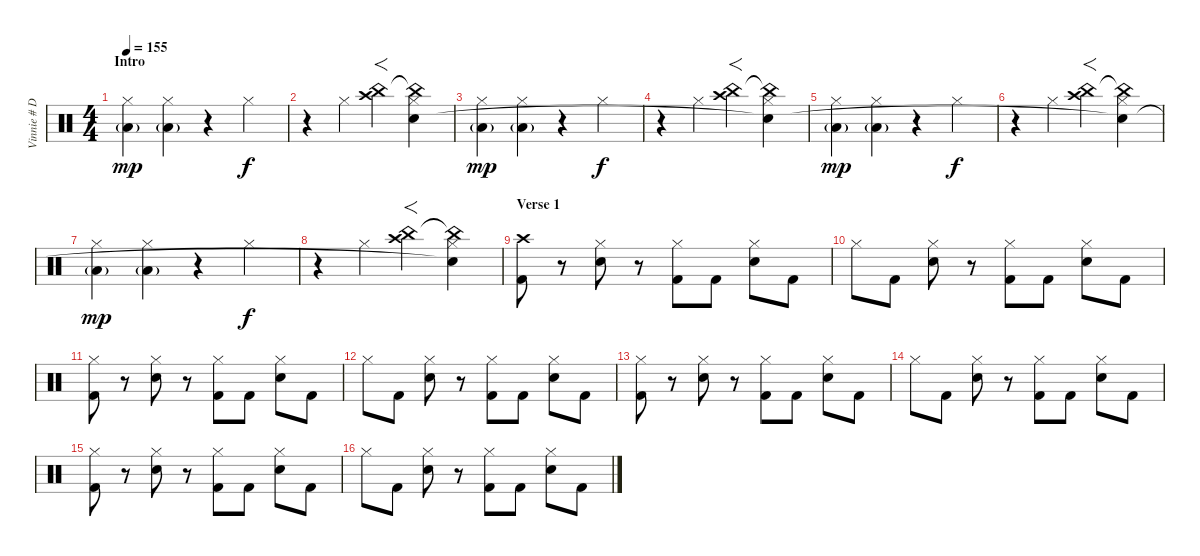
\track ("Vinnie # Drums" "Vinnie # D") {instrument percussion}
\staff {score}
\articulation defaults
\ts (4 4)
\section ("" "Intro")
\tempo 155
\clef neutral
\ks c
("Hi-Hat (closed)" "Low Floor Tom (hit)"{g}).4{dy mp} ("Hi-Hat (closed)" "Low Floor Tom (hit)"{g}).4 r.4 "Hi-Hat (closed)".4{dy f} |
r.4 "Hi-Hat (closed)".4 ("Crash high (hit)" "China (hit)").4{f} ("Hi-Hat (closed)" "China (hit)"{t} "Snare (hit)").4 |
("Hi-Hat (closed)" "Low Floor Tom (hit)"{g}).4{dy mp} ("Hi-Hat (closed)" "Low Floor Tom (hit)"{g}).4 r.4 "Hi-Hat (closed)".4{dy f} |
r.4 "Hi-Hat (closed)".4 ("Crash high (hit)" "China (hit)").4{f} ("Hi-Hat (closed)" "China (hit)"{t} "Snare (hit)"{t}).4 |
("Hi-Hat (closed)" "Low Floor Tom (hit)"{g}).4{dy mp} ("Hi-Hat (closed)" "Low Floor Tom (hit)"{g}).4 r.4 "Hi-Hat (closed)".4{dy f} |
r.4 "Hi-Hat (closed)".4 ("Crash high (hit)" "China (hit)").4{f} ("Hi-Hat (closed)" "China (hit)"{t} "Snare (hit)"{t}).4 |
("Hi-Hat (closed)" "Low Floor Tom (hit)"{g}).4{dy mp} ("Hi-Hat (closed)" "Low Floor Tom (hit)"{g}).4 r.4 "Hi-Hat (closed)".4{dy f} |
r.4 "Hi-Hat (closed)".4 ("Crash high (hit)" "China (hit)").4{f} ("Hi-Hat (closed)" "China (hit)"{t} "Snare (hit)"{t}).4 |
\section ("" "Verse 1")
("Crash high (hit)" "Kick (hit) 2").8 r.8 ("Hi-Hat (closed)" "Electric Snare (hit)").8 r.8 ("Hi-Hat (closed)" "Kick (hit) 2").8 "Kick (hit) 2".8 ("Hi-Hat (closed)" "Electric Snare (hit)").8 "Kick (hit) 2".8 |
"Hi-Hat (closed)".8 "Kick (hit) 2".8 ("Hi-Hat (closed)" "Electric Snare (hit)").8 r.8 ("Hi-Hat (closed)" "Kick (hit) 2").8 "Kick (hit) 2".8 ("Hi-Hat (closed)" "Electric Snare (hit)").8 "Kick (hit) 2".8 |
("Hi-Hat (closed)" "Kick (hit) 2").8 r.8 ("Hi-Hat (closed)" "Electric Snare (hit)").8 r.8 ("Hi-Hat (closed)" "Kick (hit) 2").8 "Kick (hit) 2".8 ("Hi-Hat (closed)" "Electric Snare (hit)").8 "Kick (hit) 2".8 |
"Hi-Hat (closed)".8 "Kick (hit) 2".8 ("Hi-Hat (closed)" "Electric Snare (hit)").8 r.8 ("Hi-Hat (closed)" "Kick (hit) 2").8 "Kick (hit) 2".8 ("Hi-Hat (closed)" "Electric Snare (hit)").8 "Kick (hit) 2".8 |
("Hi-Hat (closed)" "Kick (hit) 2").8 r.8 ("Hi-Hat (closed)" "Electric Snare (hit)").8 r.8 ("Hi-Hat (closed)" "Kick (hit) 2").8 "Kick (hit) 2".8 ("Hi-Hat (closed)" "Electric Snare (hit)").8 "Kick (hit) 2".8 |
"Hi-Hat (closed)".8 "Kick (hit) 2".8 ("Hi-Hat (closed)" "Electric Snare (hit)").8 r.8 ("Hi-Hat (closed)" "Kick (hit) 2").8 "Kick (hit) 2".8 ("Hi-Hat (closed)" "Electric Snare (hit)").8 "Kick (hit) 2".8 |
("Hi-Hat (closed)" "Kick (hit) 2").8 r.8 ("Hi-Hat (closed)" "Electric Snare (hit)").8 r.8 ("Hi-Hat (closed)" "Kick (hit) 2").8 "Kick (hit) 2".8 ("Hi-Hat (closed)" "Electric Snare (hit)").8 "Kick (hit) 2".8 |
"Hi-Hat (closed)".8 "Kick (hit) 2".8 ("Hi-Hat (closed)" "Electric Snare (hit)").8 r.8 ("Hi-Hat (closed)" "Kick (hit) 2").8 "Kick (hit) 2".8 ("Hi-Hat (closed)" "Electric Snare (hit)").8 "Kick (hit) 2".8
